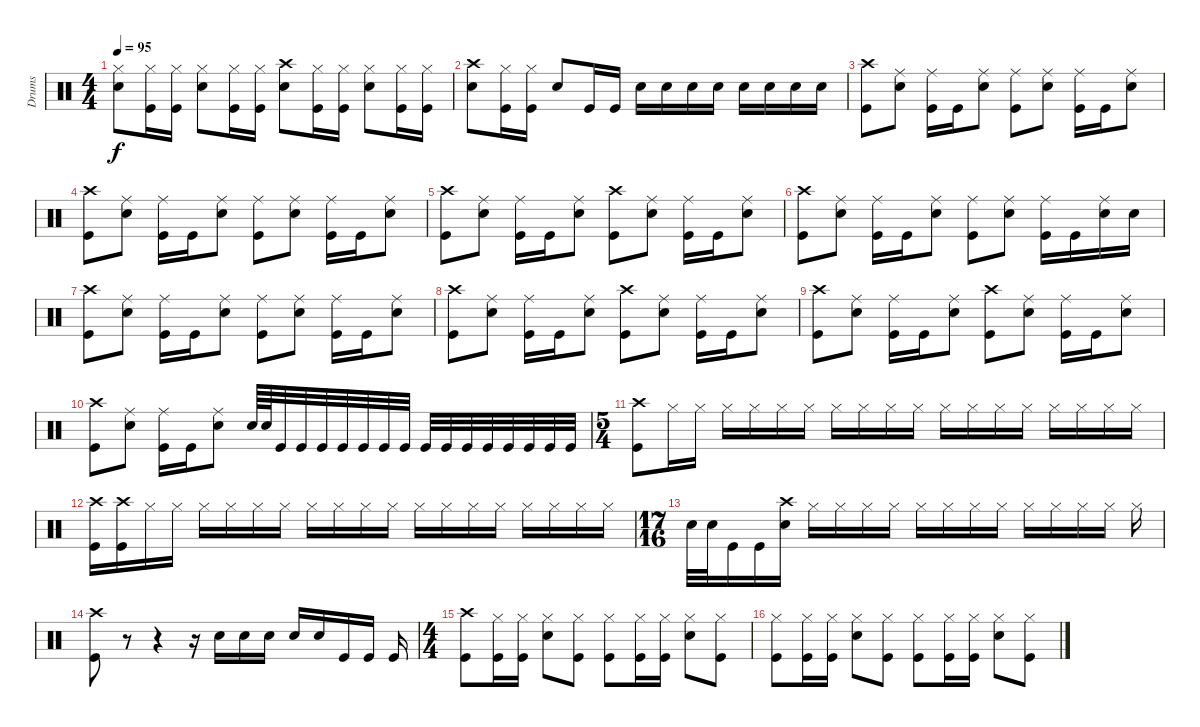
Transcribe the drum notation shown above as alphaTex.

\track ("Drums" "Drums") {instrument percussion}
\staff {score}
\articulation defaults
\ts (4 4)
\tempo 95
\clef neutral
\ks c
("Hi-Hat (closed)" "Snare (hit) 2").8{dy f} ("Hi-Hat (closed)" "Kick (hit)").16 ("Hi-Hat (closed)" "Kick (hit)").16 ("Hi-Hat (closed)" "Snare (hit) 2").8 ("Hi-Hat (closed)" "Kick (hit)").16 ("Hi-Hat (closed)" "Kick (hit)").16 ("Crash high (hit)" "Snare (hit) 2").8 ("Hi-Hat (closed)" "Kick (hit)").16 ("Hi-Hat (closed)" "Kick (hit)").16 ("Hi-Hat (closed)" "Snare (hit) 2").8 ("Hi-Hat (closed)" "Kick (hit)").16 ("Hi-Hat (closed)" "Kick (hit)").16 |
("Crash high (hit)" "Snare (hit) 2").8 ("Hi-Hat (closed)" "Kick (hit)").16 ("Hi-Hat (closed)" "Kick (hit)").16 "Snare (hit) 2".8 "Kick (hit)".16 "Kick (hit)".16 "Snare (hit) 2".16 "Snare (hit) 2".16 "Snare (hit) 2".16 "Snare (hit) 2".16 "Snare (hit) 2".16 "Snare (hit) 2".16 "Snare (hit) 2".16 "Snare (hit) 2".16 |
("Crash high (hit)" "Kick (hit)").8 ("Ride (middle)" "Snare (hit) 2").8 ("Ride (middle)" "Kick (hit)").16 "Kick (hit)".16 ("Ride (middle)" "Snare (hit) 2").8 ("Ride (middle)" "Kick (hit)").8 ("Ride (middle)" "Snare (hit) 2").8 ("Ride (middle)" "Kick (hit)").16 "Kick (hit)".16 ("Ride (middle)" "Snare (hit) 2").8 |
("Crash high (hit)" "Kick (hit)").8 ("Ride (middle)" "Snare (hit) 2").8 ("Ride (middle)" "Kick (hit)").16 "Kick (hit)".16 ("Ride (middle)" "Snare (hit) 2").8 ("Ride (middle)" "Kick (hit)").8 ("Ride (middle)" "Snare (hit) 2").8 ("Ride (middle)" "Kick (hit)").16 "Kick (hit)".16 ("Ride (middle)" "Snare (hit) 2").8 |
("Crash high (hit)" "Kick (hit)").8 ("Ride (middle)" "Snare (hit) 2").8 ("Ride (middle)" "Kick (hit)").16 "Kick (hit)".16 ("Ride (middle)" "Snare (hit) 2").8 ("Crash high (hit)" "Kick (hit)").8 ("Ride (middle)" "Snare (hit) 2").8 ("Ride (middle)" "Kick (hit)").16 "Kick (hit)".16 ("Ride (middle)" "Snare (hit) 2").8 |
("Crash high (hit)" "Kick (hit)").8 ("Ride (middle)" "Snare (hit) 2").8 ("Ride (middle)" "Kick (hit)").16 "Kick (hit)".16 ("Ride (middle)" "Snare (hit) 2").8 ("Ride (middle)" "Kick (hit)").8 ("Ride (middle)" "Snare (hit) 2").8 ("Ride (middle)" "Kick (hit)").16 "Kick (hit)".16 ("Ride (middle)" "Snare (hit) 2").16 "Snare (hit) 2".16 |
("Crash high (hit)" "Kick (hit)").8 ("Ride (middle)" "Snare (hit) 2").8 ("Ride (middle)" "Kick (hit)").16 "Kick (hit)".16 ("Ride (middle)" "Snare (hit) 2").8 ("Ride (middle)" "Kick (hit)").8 ("Ride (middle)" "Snare (hit) 2").8 ("Ride (middle)" "Kick (hit)").16 "Kick (hit)".16 ("Ride (middle)" "Snare (hit) 2").8 |
("Crash high (hit)" "Kick (hit)").8 ("Ride (middle)" "Snare (hit) 2").8 ("Ride (middle)" "Kick (hit)").16 "Kick (hit)".16 ("Ride (middle)" "Snare (hit) 2").8 ("Crash high (hit)" "Kick (hit)").8 ("Ride (middle)" "Snare (hit) 2").8 ("Ride (middle)" "Kick (hit)").16 "Kick (hit)".16 ("Ride (middle)" "Snare (hit) 2").8 |
("Crash high (hit)" "Kick (hit)").8 ("Ride (middle)" "Snare (hit) 2").8 ("Ride (middle)" "Kick (hit)").16 "Kick (hit)".16 ("Ride (middle)" "Snare (hit) 2").8 ("Crash high (hit)" "Kick (hit)").8 ("Ride (middle)" "Snare (hit) 2").8 ("Ride (middle)" "Kick (hit)").16 "Kick (hit)".16 ("Ride (middle)" "Snare (hit) 2").8 |
("Crash high (hit)" "Kick (hit)").8 ("Ride (middle)" "Snare (hit) 2").8 ("Ride (middle)" "Kick (hit)").16 "Kick (hit)".16 ("Ride (middle)" "Snare (hit) 2").8 "Snare (hit) 2".64 "Snare (hit) 2".64 "Kick (hit)".32 "Kick (hit)".32 "Kick (hit)".32 "Kick (hit)".32 "Kick (hit)".32 "Kick (hit)".32 "Kick (hit)".32 "Kick (hit)".32 "Kick (hit)".32 "Kick (hit)".32 "Kick (hit)".32 "Kick (hit)".32 "Kick (hit)".32 "Kick (hit)".32 "Kick (hit)".32 |
\ts (5 4)
("Crash high (hit)" "Kick (hit)").8 "Hi-Hat (closed)".16 "Hi-Hat (closed)".16 "Hi-Hat (closed)".16 "Hi-Hat (closed)".16 "Hi-Hat (closed)".16 "Hi-Hat (closed)".16 "Hi-Hat (closed)".16 "Hi-Hat (closed)".16 "Hi-Hat (closed)".16 "Hi-Hat (closed)".16 "Hi-Hat (closed)".16 "Hi-Hat (closed)".16 "Hi-Hat (closed)".16 "Hi-Hat (closed)".16 "Hi-Hat (closed)".16 "Hi-Hat (closed)".16 "Hi-Hat (closed)".16 "Hi-Hat (closed)".16 |
("Crash high (hit)" "Kick (hit)").16 ("Crash high (hit)" "Kick (hit)").16 "Hi-Hat (closed)".16 "Hi-Hat (closed)".16 "Hi-Hat (closed)".16 "Hi-Hat (closed)".16 "Hi-Hat (closed)".16 "Hi-Hat (closed)".16 "Hi-Hat (closed)".16 "Hi-Hat (closed)".16 "Hi-Hat (closed)".16 "Hi-Hat (closed)".16 "Hi-Hat (closed)".16 "Hi-Hat (closed)".16 "Hi-Hat (closed)".16 "Hi-Hat (closed)".16 "Hi-Hat (closed)".16 "Hi-Hat (closed)".16 "Hi-Hat (closed)".16 "Hi-Hat (closed)".16 |
\ts (17 16)
"Snare (hit) 2".32 "Snare (hit) 2".32 "Kick (hit)".16 "Kick (hit)".16 ("Crash high (hit)" "Snare (hit) 2").16 "Hi-Hat (closed)".16 "Hi-Hat (closed)".16 "Hi-Hat (closed)".16 "Hi-Hat (closed)".16 "Hi-Hat (closed)".16 "Hi-Hat (closed)".16 "Hi-Hat (closed)".16 "Hi-Hat (closed)".16 "Hi-Hat (closed)".16 "Hi-Hat (closed)".16 "Hi-Hat (closed)".16 "Hi-Hat (closed)".16 "Hi-Hat (closed)".16 |
("Crash high (hit)" "Kick (hit)").8 r.8 r.4 r.16 "Snare (hit) 2".16 "Snare (hit) 2".16 "Snare (hit) 2".16 "Snare (hit) 2".16 "Snare (hit) 2".16 "Kick (hit)".16 "Kick (hit)".16 "Kick (hit)".16 |
\ts (4 4)
("Crash high (hit)" "Kick (hit)").8 ("Hi-Hat (closed)" "Kick (hit)").16 ("Hi-Hat (closed)" "Kick (hit)").16 ("Hi-Hat (closed)" "Snare (hit) 2").8 ("Hi-Hat (closed)" "Kick (hit)").8 ("Hi-Hat (closed)" "Kick (hit)").8 ("Hi-Hat (closed)" "Kick (hit)").16 ("Hi-Hat (closed)" "Kick (hit)").16 ("Hi-Hat (closed)" "Snare (hit) 2").8 ("Hi-Hat (closed)" "Kick (hit)").8 |
("Hi-Hat (closed)" "Kick (hit)").8 ("Hi-Hat (closed)" "Kick (hit)").16 ("Hi-Hat (closed)" "Kick (hit)").16 ("Hi-Hat (closed)" "Snare (hit) 2").8 ("Hi-Hat (closed)" "Kick (hit)").8 ("Hi-Hat (closed)" "Kick (hit)").8 ("Hi-Hat (closed)" "Kick (hit)").16 ("Hi-Hat (closed)" "Kick (hit)").16 ("Hi-Hat (closed)" "Snare (hit) 2").8 ("Hi-Hat (closed)" "Kick (hit)").8
